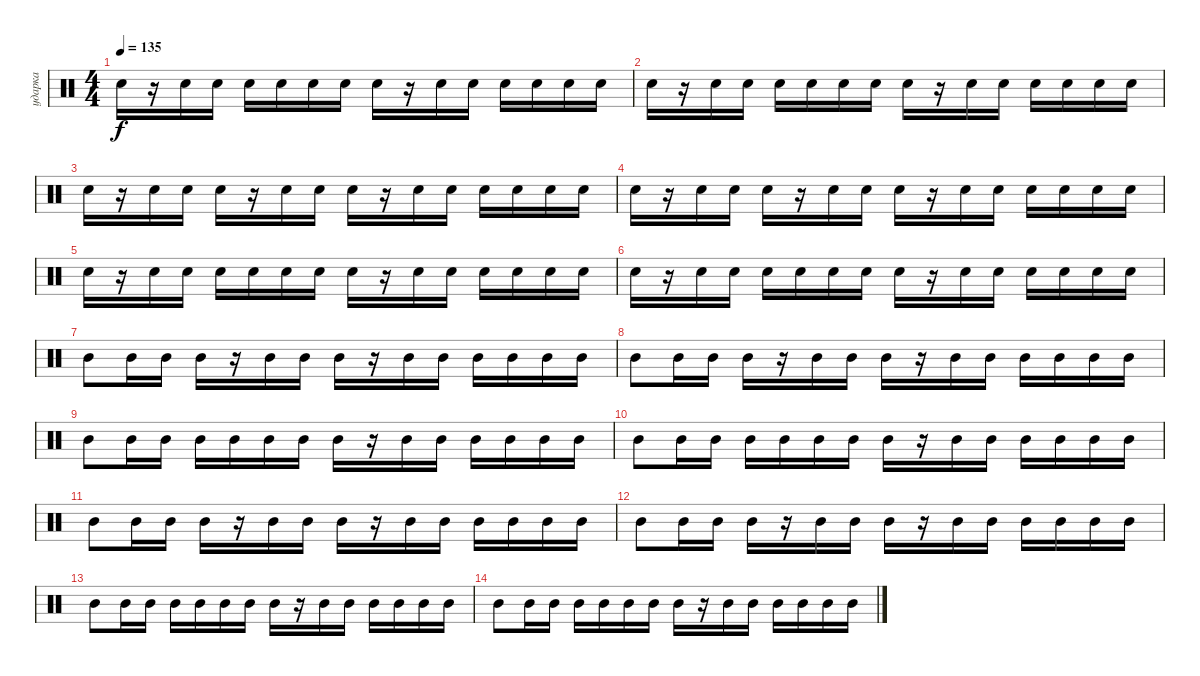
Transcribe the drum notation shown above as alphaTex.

\track ("ударка" "ударка") {instrument percussion}
\staff {score}
\articulation defaults
\ts (4 4)
\tempo 135
\clef neutral
\ks c "Snare (hit) 2".16{dy f}
r.16 "Snare (hit) 2".16 "Snare (hit) 2".16 "Snare (hit) 2".16 "Snare (hit) 2".16 "Snare (hit) 2".16 "Snare (hit) 2".16 "Snare (hit) 2".16 r.16 "Snare (hit) 2".16 "Snare (hit) 2".16 "Snare (hit) 2".16 "Snare (hit) 2".16 "Snare (hit) 2".16 "Snare (hit) 2".16 |
"Snare (hit) 2".16 r.16 "Snare (hit) 2".16 "Snare (hit) 2".16 "Snare (hit) 2".16 "Snare (hit) 2".16 "Snare (hit) 2".16 "Snare (hit) 2".16 "Snare (hit) 2".16 r.16 "Snare (hit) 2".16 "Snare (hit) 2".16 "Snare (hit) 2".16 "Snare (hit) 2".16 "Snare (hit) 2".16 "Snare (hit) 2".16 |
"Snare (hit) 2".16 r.16 "Snare (hit) 2".16 "Snare (hit) 2".16 "Snare (hit) 2".16 r.16 "Snare (hit) 2".16 "Snare (hit) 2".16 "Snare (hit) 2".16 r.16 "Snare (hit) 2".16 "Snare (hit) 2".16 "Snare (hit) 2".16 "Snare (hit) 2".16 "Snare (hit) 2".16 "Snare (hit) 2".16 |
"Snare (hit) 2".16 r.16 "Snare (hit) 2".16 "Snare (hit) 2".16 "Snare (hit) 2".16 r.16 "Snare (hit) 2".16 "Snare (hit) 2".16 "Snare (hit) 2".16 r.16 "Snare (hit) 2".16 "Snare (hit) 2".16 "Snare (hit) 2".16 "Snare (hit) 2".16 "Snare (hit) 2".16 "Snare (hit) 2".16 |
"Snare (hit) 2".16 r.16 "Snare (hit) 2".16 "Snare (hit) 2".16 "Snare (hit) 2".16 "Snare (hit) 2".16 "Snare (hit) 2".16 "Snare (hit) 2".16 "Snare (hit) 2".16 r.16 "Snare (hit) 2".16 "Snare (hit) 2".16 "Snare (hit) 2".16 "Snare (hit) 2".16 "Snare (hit) 2".16 "Snare (hit) 2".16 |
"Snare (hit) 2".16 r.16 "Snare (hit) 2".16 "Snare (hit) 2".16 "Snare (hit) 2".16 "Snare (hit) 2".16 "Snare (hit) 2".16 "Snare (hit) 2".16 "Snare (hit) 2".16 r.16 "Snare (hit) 2".16 "Snare (hit) 2".16 "Snare (hit) 2".16 "Snare (hit) 2".16 "Snare (hit) 2".16 "Snare (hit) 2".16 |
"Mid Tom (hit)".8 "Mid Tom (hit)".16 "Mid Tom (hit)".16 "Mid Tom (hit)".16 r.16 "Mid Tom (hit)".16 "Mid Tom (hit)".16 "Mid Tom (hit)".16 r.16 "Mid Tom (hit)".16 "Mid Tom (hit)".16 "Mid Tom (hit)".16 "Mid Tom (hit)".16 "Mid Tom (hit)".16 "Mid Tom (hit)".16 |
"Mid Tom (hit)".8 "Mid Tom (hit)".16 "Mid Tom (hit)".16 "Mid Tom (hit)".16 r.16 "Mid Tom (hit)".16 "Mid Tom (hit)".16 "Mid Tom (hit)".16 r.16 "Mid Tom (hit)".16 "Mid Tom (hit)".16 "Mid Tom (hit)".16 "Mid Tom (hit)".16 "Mid Tom (hit)".16 "Mid Tom (hit)".16 |
"Mid Tom (hit)".8 "Mid Tom (hit)".16 "Mid Tom (hit)".16 "Mid Tom (hit)".16 "Mid Tom (hit)".16 "Mid Tom (hit)".16 "Mid Tom (hit)".16 "Mid Tom (hit)".16 r.16 "Mid Tom (hit)".16 "Mid Tom (hit)".16 "Mid Tom (hit)".16 "Mid Tom (hit)".16 "Mid Tom (hit)".16 "Mid Tom (hit)".16 |
"Mid Tom (hit)".8 "Mid Tom (hit)".16 "Mid Tom (hit)".16 "Mid Tom (hit)".16 "Mid Tom (hit)".16 "Mid Tom (hit)".16 "Mid Tom (hit)".16 "Mid Tom (hit)".16 r.16 "Mid Tom (hit)".16 "Mid Tom (hit)".16 "Mid Tom (hit)".16 "Mid Tom (hit)".16 "Mid Tom (hit)".16 "Mid Tom (hit)".16 |
"Mid Tom (hit)".8 "Mid Tom (hit)".16 "Mid Tom (hit)".16 "Mid Tom (hit)".16 r.16 "Mid Tom (hit)".16 "Mid Tom (hit)".16 "Mid Tom (hit)".16 r.16 "Mid Tom (hit)".16 "Mid Tom (hit)".16 "Mid Tom (hit)".16 "Mid Tom (hit)".16 "Mid Tom (hit)".16 "Mid Tom (hit)".16 |
"Mid Tom (hit)".8 "Mid Tom (hit)".16 "Mid Tom (hit)".16 "Mid Tom (hit)".16 r.16 "Mid Tom (hit)".16 "Mid Tom (hit)".16 "Mid Tom (hit)".16 r.16 "Mid Tom (hit)".16 "Mid Tom (hit)".16 "Mid Tom (hit)".16 "Mid Tom (hit)".16 "Mid Tom (hit)".16 "Mid Tom (hit)".16 |
"Mid Tom (hit)".8 "Mid Tom (hit)".16 "Mid Tom (hit)".16 "Mid Tom (hit)".16 "Mid Tom (hit)".16 "Mid Tom (hit)".16 "Mid Tom (hit)".16 "Mid Tom (hit)".16 r.16 "Mid Tom (hit)".16 "Mid Tom (hit)".16 "Mid Tom (hit)".16 "Mid Tom (hit)".16 "Mid Tom (hit)".16 "Mid Tom (hit)".16 |
"Mid Tom (hit)".8 "Mid Tom (hit)".16 "Mid Tom (hit)".16 "Mid Tom (hit)".16 "Mid Tom (hit)".16 "Mid Tom (hit)".16 "Mid Tom (hit)".16 "Mid Tom (hit)".16 r.16 "Mid Tom (hit)".16 "Mid Tom (hit)".16 "Mid Tom (hit)".16 "Mid Tom (hit)".16 "Mid Tom (hit)".16 "Mid Tom (hit)".16
